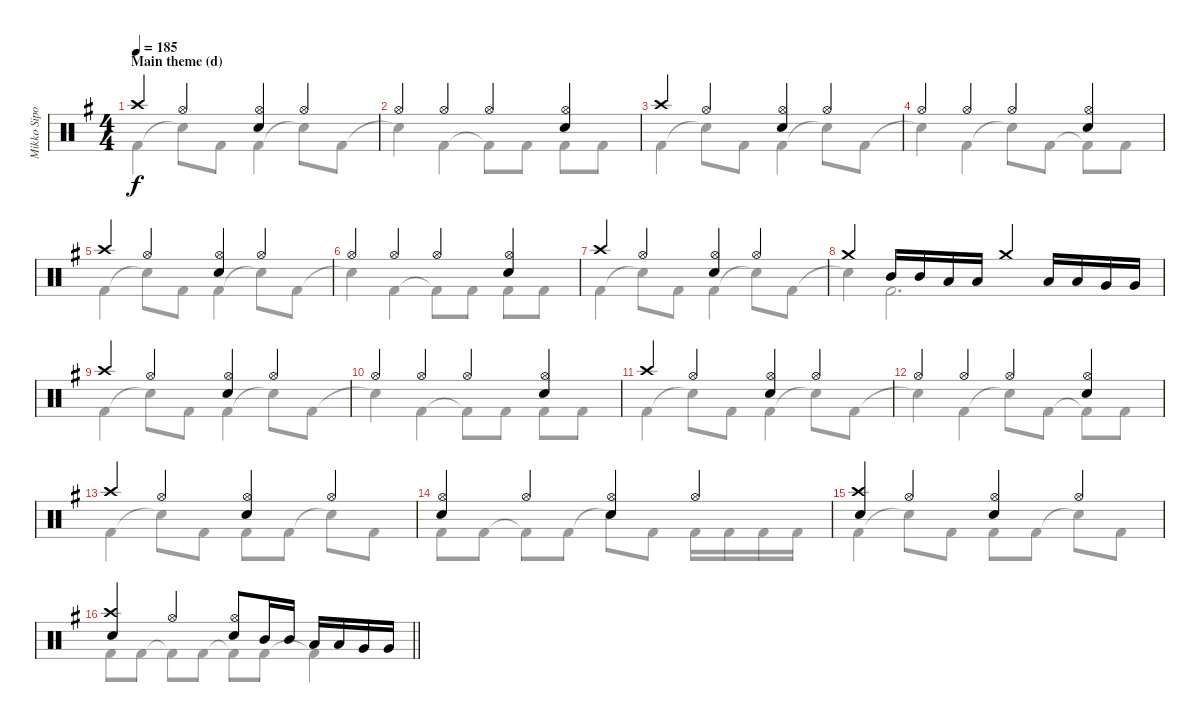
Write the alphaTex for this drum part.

\track ("Mikko Sipola (drums)" "Mikko Sipo") {instrument percussion}
\staff {score}
\articulation defaults
\voice
\ts (4 4)
\section ("" "Main theme (d)")
\tempo 185
\clef neutral
\ks eminor "Crash high (hit)".4{dy f} "Hi-Hat (open)".4
("Hi-Hat (open)" "Electric Snare (hit)").4 "Hi-Hat (open)".4 |
"Hi-Hat (open)".4 "Hi-Hat (open)".4 "Hi-Hat (open)".4 ("Hi-Hat (open)" "Electric Snare (hit)").4 |
"Crash high (hit)".4 "Hi-Hat (open)".4 ("Hi-Hat (open)" "Electric Snare (hit)").4 "Hi-Hat (open)".4 |
"Hi-Hat (open)".4 "Hi-Hat (open)".4 "Hi-Hat (open)".4 ("Hi-Hat (open)" "Electric Snare (hit)").4 |
"Crash high (hit)".4 "Hi-Hat (open)".4 ("Hi-Hat (open)" "Electric Snare (hit)").4 "Hi-Hat (open)".4 |
"Hi-Hat (open)".4 "Hi-Hat (open)".4 "Hi-Hat (open)".4 ("Hi-Hat (open)" "Electric Snare (hit)").4 |
"Crash high (hit)".4 "Hi-Hat (open)".4 ("Hi-Hat (open)" "Electric Snare (hit)").4 "Hi-Hat (open)".4 |
"Crash medium (hit)".4 "Mid Tom (hit)".16 "Mid Tom (hit)".16 "Low Tom (hit)".16 "Low Tom (hit)".16 "Crash medium (hit)".4 "Low Tom (hit)".16 "Low Tom (hit)".16 "Very Low Tom (hit)".16 "Very Low Tom (hit)".16 |
"Crash high (hit)".4 "Hi-Hat (open)".4 ("Hi-Hat (open)" "Electric Snare (hit)").4 "Hi-Hat (open)".4 |
"Hi-Hat (open)".4 "Hi-Hat (open)".4 "Hi-Hat (open)".4 ("Hi-Hat (open)" "Electric Snare (hit)").4 |
"Crash high (hit)".4 "Hi-Hat (open)".4 ("Hi-Hat (open)" "Electric Snare (hit)").4 "Hi-Hat (open)".4 |
"Hi-Hat (open)".4 "Hi-Hat (open)".4 "Hi-Hat (open)".4 ("Hi-Hat (open)" "Electric Snare (hit)").4 |
"Crash high (hit)".4 "Hi-Hat (open)".4 ("Hi-Hat (open)" "Electric Snare (hit)").4 "Hi-Hat (open)".4 |
("Hi-Hat (open)" "Electric Snare (hit)").4 "Hi-Hat (open)".4 ("Hi-Hat (open)" "Electric Snare (hit)").4 "Hi-Hat (open)".4 |
("Crash high (hit)" "Electric Snare (hit)").4 "Hi-Hat (open)".4 ("Hi-Hat (open)" "Electric Snare (hit)").4 "Hi-Hat (open)".4 |
\barLineRight lightlight
("Crash high (hit)" "Electric Snare (hit)").4 "Hi-Hat (open)".4 ("Hi-Hat (open)" "Electric Snare (hit)").8 "Mid Tom (hit)".16 "Mid Tom (hit)".16 "Low Tom (hit)".16 "Low Tom (hit)".16 "Very Low Tom (hit)".16 "Very Low Tom (hit)".16
\voice
\clef neutral
\ottava regular
\simile none
\ks eminor "Kick (hit) 2".4{dy f} "Snare (hit)"{t}.8 "Kick (hit) 2".8 "Kick (hit) 2".4 "Snare (hit)"{t}.8 "Kick (hit) 2".8
|
"Snare (hit)"{t}.4 "Kick (hit) 2".4 "Kick (hit) 2"{t}.8 "Kick (hit) 2".8 "Kick (hit) 2".8 "Kick (hit) 2".8 |
"Kick (hit) 2".4 "Snare (hit)"{t}.8 "Kick (hit) 2".8 "Kick (hit) 2".4 "Snare (hit)"{t}.8 "Kick (hit) 2".8 |
"Snare (hit)"{t}.4 "Kick (hit) 2".4 "Snare (hit)"{t}.8 "Kick (hit) 2".8 "Kick (hit) 2"{t}.8 "Kick (hit) 2".8 |
"Kick (hit) 2".4 "Snare (hit)"{t}.8 "Kick (hit) 2".8 "Kick (hit) 2".4 "Snare (hit)"{t}.8 "Kick (hit) 2".8 |
"Snare (hit)"{t}.4 "Kick (hit) 2".4 "Kick (hit) 2"{t}.8 "Kick (hit) 2".8 "Kick (hit) 2".8 "Kick (hit) 2".8 |
"Kick (hit) 2".4 "Snare (hit)"{t}.8 "Kick (hit) 2".8 "Kick (hit) 2".4 "Snare (hit)"{t}.8 "Kick (hit) 2".8 |
"Snare (hit)"{t}.4 "Kick (hit) 2".2{d} |
"Kick (hit) 2".4 "Snare (hit)"{t}.8 "Kick (hit) 2".8 "Kick (hit) 2".4 "Snare (hit)"{t}.8 "Kick (hit) 2".8 |
"Snare (hit)"{t}.4 "Kick (hit) 2".4 "Kick (hit) 2"{t}.8 "Kick (hit) 2".8 "Kick (hit) 2".8 "Kick (hit) 2".8 |
"Kick (hit) 2".4 "Snare (hit)"{t}.8 "Kick (hit) 2".8 "Kick (hit) 2".4 "Snare (hit)"{t}.8 "Kick (hit) 2".8 |
"Snare (hit)"{t}.4 "Kick (hit) 2".4 "Snare (hit)"{t}.8 "Kick (hit) 2".8 "Kick (hit) 2"{t}.8 "Kick (hit) 2".8 |
"Kick (hit) 2".4 "Snare (hit)"{t}.8 "Kick (hit) 2".8 "Kick (hit) 2".8 "Kick (hit) 2".8 "Snare (hit)"{t}.8 "Kick (hit) 2".8 |
"Kick (hit) 2".8 "Kick (hit) 2".8 "Kick (hit) 2"{t}.8 "Kick (hit) 2".8 "Snare (hit)"{t}.8 "Kick (hit) 2".8 "Kick (hit) 2".16 "Kick (hit) 2".16 "Kick (hit) 2".16 "Kick (hit) 2".16 |
"Kick (hit) 2".4 "Snare (hit)"{t}.8 "Kick (hit) 2".8 "Kick (hit) 2".8 "Kick (hit) 2".8 "Snare (hit)"{t}.8 "Kick (hit) 2".8 |
\barLineRight lightlight "Kick (hit) 2".8 "Kick (hit) 2".8 "Kick (hit) 2"{t}.8 "Kick (hit) 2".8 "Kick (hit) 2"{t}.8 "Kick (hit) 2".8 "Kick (hit) 2"{t}.4
